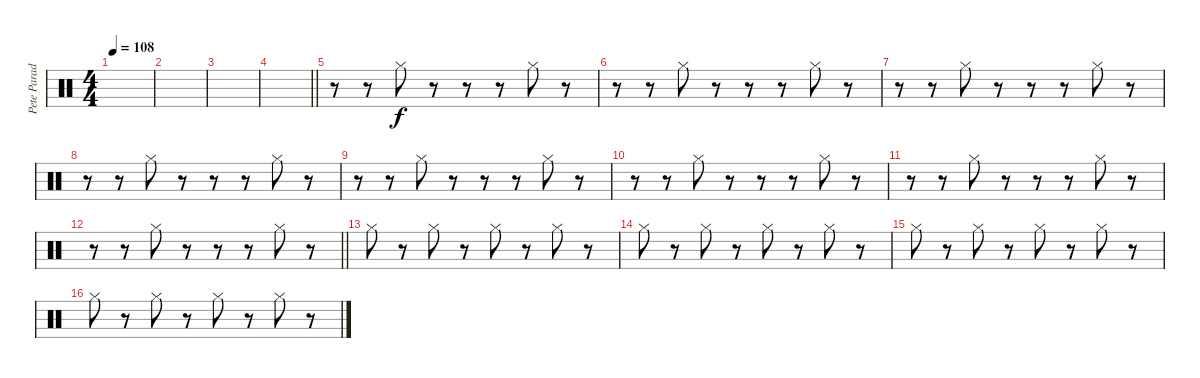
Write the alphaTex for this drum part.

\track ("Pete Parada - Drums" "Pete Parad") {instrument percussion}
\staff {score}
\articulation defaults
\ts (4 4)
\tempo 108
\clef neutral
\ks c
|
|
|
\barLineRight lightlight
|
r.8 r.8 "Hi-Hat (closed)".8 r.8 r.8 r.8 "Hi-Hat (closed)".8 r.8 |
r.8 r.8 "Hi-Hat (closed)".8 r.8 r.8 r.8 "Hi-Hat (closed)".8 r.8 |
r.8 r.8 "Hi-Hat (closed)".8 r.8 r.8 r.8 "Hi-Hat (closed)".8 r.8 |
r.8 r.8 "Hi-Hat (closed)".8 r.8 r.8 r.8 "Hi-Hat (closed)".8 r.8 |
r.8 r.8 "Hi-Hat (closed)".8 r.8 r.8 r.8 "Hi-Hat (closed)".8 r.8 |
r.8 r.8 "Hi-Hat (closed)".8 r.8 r.8 r.8 "Hi-Hat (closed)".8 r.8 |
r.8 r.8 "Hi-Hat (closed)".8 r.8 r.8 r.8 "Hi-Hat (closed)".8 r.8 |
\barLineRight lightlight
r.8 r.8 "Hi-Hat (closed)".8 r.8 r.8 r.8 "Hi-Hat (closed)".8 r.8 |
"Hi-Hat (closed)".8 r.8 "Hi-Hat (closed)".8 r.8 "Hi-Hat (closed)".8 r.8 "Hi-Hat (closed)".8 r.8 |
"Hi-Hat (closed)".8 r.8 "Hi-Hat (closed)".8 r.8 "Hi-Hat (closed)".8 r.8 "Hi-Hat (closed)".8 r.8 |
"Hi-Hat (closed)".8 r.8 "Hi-Hat (closed)".8 r.8 "Hi-Hat (closed)".8 r.8 "Hi-Hat (closed)".8 r.8 |
"Hi-Hat (closed)".8 r.8 "Hi-Hat (closed)".8 r.8 "Hi-Hat (closed)".8 r.8 "Hi-Hat (closed)".8 r.8
